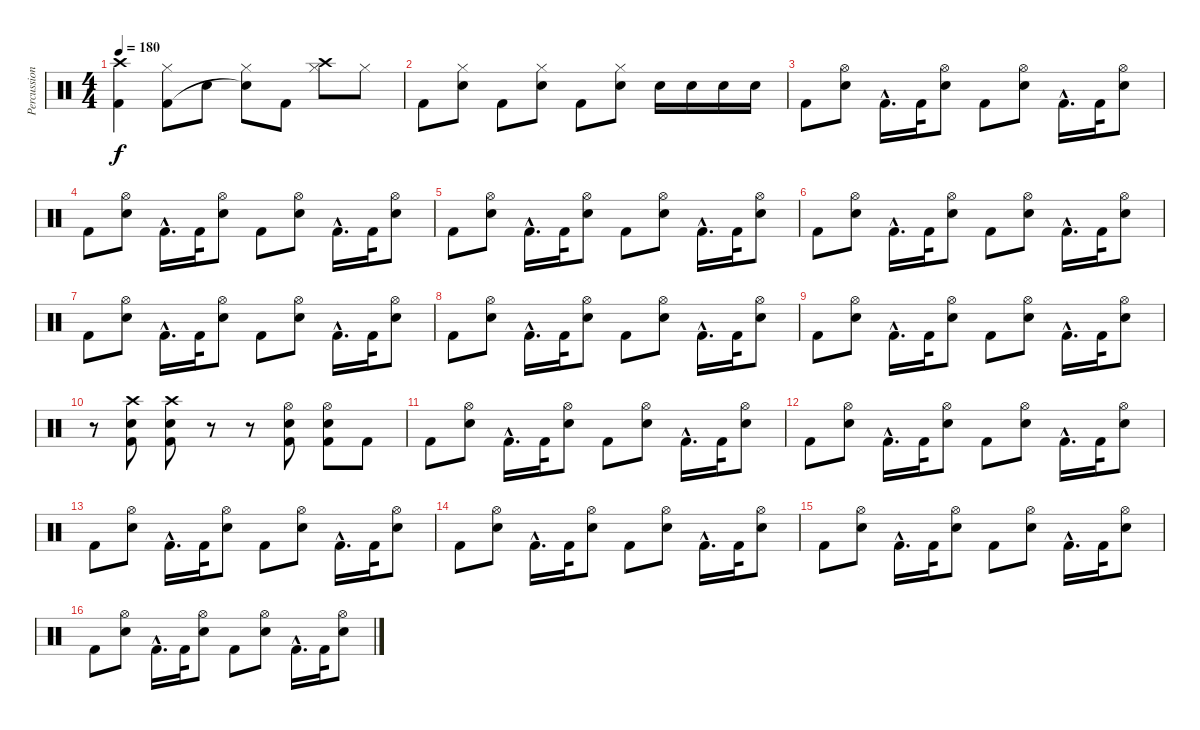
\track ("Percussion" "Percussion") {instrument percussion}
\staff {score}
\articulation defaults
\ts (4 4)
\tempo 180
\clef neutral
\ks c
("Crash high (hit)" "Kick (hit) 2").4{dy f} ("Hi-Hat (closed)" "Kick (hit) 2").8 "Snare (hit) 2".8 ("Hi-Hat (closed)" "Snare (hit)"{t}).8 "Kick (hit) 2".8 ("Crash high (hit)" "Hi-Hat (closed)").8 "Hi-Hat (closed)".8 |
"Kick (hit) 2".8 ("Hi-Hat (closed)" "Snare (hit) 2").8 "Kick (hit) 2".8 ("Hi-Hat (closed)" "Snare (hit) 2").8 "Kick (hit) 2".8 ("Hi-Hat (closed)" "Snare (hit) 2").8 "Snare (hit) 2".16 "Snare (hit) 2".16 "Snare (hit) 2".16 "Snare (hit) 2".16 |
"Kick (hit) 2".8 ("Hi-Hat (open)" "Snare (hit) 2").8 "Kick (hit) 2"{hac}.16{d} "Kick (hit) 2".32 ("Hi-Hat (open)" "Snare (hit) 2").8 "Kick (hit) 2".8 ("Hi-Hat (open)" "Snare (hit) 2").8 "Kick (hit) 2"{hac}.16{d} "Kick (hit) 2".32 ("Hi-Hat (open)" "Snare (hit) 2").8 |
"Kick (hit) 2".8 ("Hi-Hat (open)" "Snare (hit) 2").8 "Kick (hit) 2"{hac}.16{d} "Kick (hit) 2".32 ("Hi-Hat (open)" "Snare (hit) 2").8 "Kick (hit) 2".8 ("Hi-Hat (open)" "Snare (hit) 2").8 "Kick (hit) 2"{hac}.16{d} "Kick (hit) 2".32 ("Hi-Hat (open)" "Snare (hit) 2").8 |
"Kick (hit) 2".8 ("Hi-Hat (open)" "Snare (hit) 2").8 "Kick (hit) 2"{hac}.16{d} "Kick (hit) 2".32 ("Hi-Hat (open)" "Snare (hit) 2").8 "Kick (hit) 2".8 ("Hi-Hat (open)" "Snare (hit) 2").8 "Kick (hit) 2"{hac}.16{d} "Kick (hit) 2".32 ("Hi-Hat (open)" "Snare (hit) 2").8 |
"Kick (hit) 2".8 ("Hi-Hat (open)" "Snare (hit) 2").8 "Kick (hit) 2"{hac}.16{d} "Kick (hit) 2".32 ("Hi-Hat (open)" "Snare (hit) 2").8 "Kick (hit) 2".8 ("Hi-Hat (open)" "Snare (hit) 2").8 "Kick (hit) 2"{hac}.16{d} "Kick (hit) 2".32 ("Hi-Hat (open)" "Snare (hit) 2").8 |
"Kick (hit) 2".8 ("Hi-Hat (open)" "Snare (hit) 2").8 "Kick (hit) 2"{hac}.16{d} "Kick (hit) 2".32 ("Hi-Hat (open)" "Snare (hit) 2").8 "Kick (hit) 2".8 ("Hi-Hat (open)" "Snare (hit) 2").8 "Kick (hit) 2"{hac}.16{d} "Kick (hit) 2".32 ("Hi-Hat (open)" "Snare (hit) 2").8 |
"Kick (hit) 2".8 ("Hi-Hat (open)" "Snare (hit) 2").8 "Kick (hit) 2"{hac}.16{d} "Kick (hit) 2".32 ("Hi-Hat (open)" "Snare (hit) 2").8 "Kick (hit) 2".8 ("Hi-Hat (open)" "Snare (hit) 2").8 "Kick (hit) 2"{hac}.16{d} "Kick (hit) 2".32 ("Hi-Hat (open)" "Snare (hit) 2").8 |
"Kick (hit) 2".8 ("Hi-Hat (open)" "Snare (hit) 2").8 "Kick (hit) 2"{hac}.16{d} "Kick (hit) 2".32 ("Hi-Hat (open)" "Snare (hit) 2").8 "Kick (hit) 2".8 ("Hi-Hat (open)" "Snare (hit) 2").8 "Kick (hit) 2"{hac}.16{d} "Kick (hit) 2".32 ("Hi-Hat (open)" "Snare (hit) 2").8 |
r.8 ("Crash high (hit)" "Snare (hit) 2" "Kick (hit) 2").8 ("Crash high (hit)" "Snare (hit) 2" "Kick (hit) 2").8 r.8 r.8 ("Hi-Hat (open)" "Snare (hit) 2" "Kick (hit) 2").8 ("Hi-Hat (open)" "Snare (hit) 2" "Kick (hit) 2").8 "Kick (hit) 2".8 |
"Kick (hit) 2".8 ("Hi-Hat (open)" "Snare (hit) 2").8 "Kick (hit) 2"{hac}.16{d} "Kick (hit) 2".32 ("Hi-Hat (open)" "Snare (hit) 2").8 "Kick (hit) 2".8 ("Hi-Hat (open)" "Snare (hit) 2").8 "Kick (hit) 2"{hac}.16{d} "Kick (hit) 2".32 ("Hi-Hat (open)" "Snare (hit) 2").8 |
"Kick (hit) 2".8 ("Hi-Hat (open)" "Snare (hit) 2").8 "Kick (hit) 2"{hac}.16{d} "Kick (hit) 2".32 ("Hi-Hat (open)" "Snare (hit) 2").8 "Kick (hit) 2".8 ("Hi-Hat (open)" "Snare (hit) 2").8 "Kick (hit) 2"{hac}.16{d} "Kick (hit) 2".32 ("Hi-Hat (open)" "Snare (hit) 2").8 |
"Kick (hit) 2".8 ("Hi-Hat (open)" "Snare (hit) 2").8 "Kick (hit) 2"{hac}.16{d} "Kick (hit) 2".32 ("Hi-Hat (open)" "Snare (hit) 2").8 "Kick (hit) 2".8 ("Hi-Hat (open)" "Snare (hit) 2").8 "Kick (hit) 2"{hac}.16{d} "Kick (hit) 2".32 ("Hi-Hat (open)" "Snare (hit) 2").8 |
"Kick (hit) 2".8 ("Hi-Hat (open)" "Snare (hit) 2").8 "Kick (hit) 2"{hac}.16{d} "Kick (hit) 2".32 ("Hi-Hat (open)" "Snare (hit) 2").8 "Kick (hit) 2".8 ("Hi-Hat (open)" "Snare (hit) 2").8 "Kick (hit) 2"{hac}.16{d} "Kick (hit) 2".32 ("Hi-Hat (open)" "Snare (hit) 2").8 |
"Kick (hit) 2".8 ("Hi-Hat (open)" "Snare (hit) 2").8 "Kick (hit) 2"{hac}.16{d} "Kick (hit) 2".32 ("Hi-Hat (open)" "Snare (hit) 2").8 "Kick (hit) 2".8 ("Hi-Hat (open)" "Snare (hit) 2").8 "Kick (hit) 2"{hac}.16{d} "Kick (hit) 2".32 ("Hi-Hat (open)" "Snare (hit) 2").8 |
"Kick (hit) 2".8 ("Hi-Hat (open)" "Snare (hit) 2").8 "Kick (hit) 2"{hac}.16{d} "Kick (hit) 2".32 ("Hi-Hat (open)" "Snare (hit) 2").8 "Kick (hit) 2".8 ("Hi-Hat (open)" "Snare (hit) 2").8 "Kick (hit) 2"{hac}.16{d} "Kick (hit) 2".32 ("Hi-Hat (open)" "Snare (hit) 2").8
